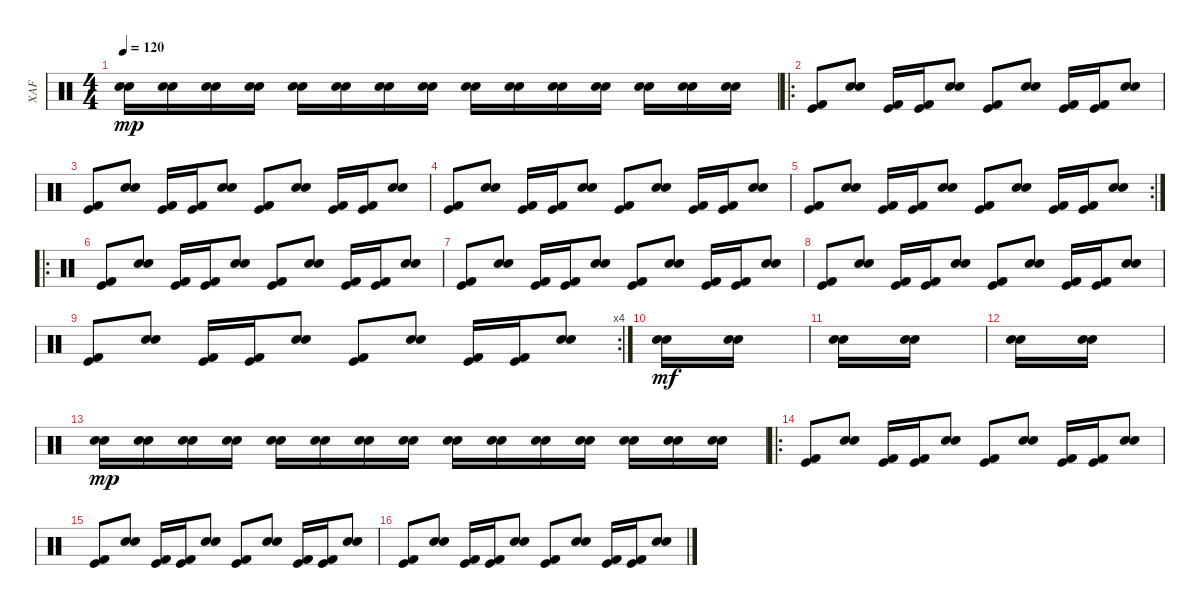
\track ("XAF" "XAF") {instrument percussion}
\staff {score}
\articulation defaults
\ts (4 4)
\tempo 120
\clef neutral
\ks c
("Electric Snare (hit)" "Snare (hit) 2").16{dy mp} ("Electric Snare (hit)" "Snare (hit) 2").16 ("Electric Snare (hit)" "Snare (hit) 2").16 ("Electric Snare (hit)" "Snare (hit) 2").16 ("Electric Snare (hit)" "Snare (hit) 2").16 ("Electric Snare (hit)" "Snare (hit) 2").16 ("Electric Snare (hit)" "Snare (hit) 2").16 ("Electric Snare (hit)" "Snare (hit) 2").16 ("Electric Snare (hit)" "Snare (hit) 2").16 ("Electric Snare (hit)" "Snare (hit) 2").16 ("Electric Snare (hit)" "Snare (hit) 2").16 ("Electric Snare (hit)" "Snare (hit) 2").16 ("Electric Snare (hit)" "Snare (hit) 2").16 ("Electric Snare (hit)" "Snare (hit) 2").16 ("Electric Snare (hit)" "Snare (hit) 2").16 |
\ro
("Kick (hit) 2" "Kick (hit)").8 ("Electric Snare (hit)" "Snare (hit) 2").8 ("Kick (hit) 2" "Kick (hit)").16 ("Kick (hit) 2" "Kick (hit)").16 ("Electric Snare (hit)" "Snare (hit) 2").8 ("Kick (hit) 2" "Kick (hit)").8 ("Electric Snare (hit)" "Snare (hit) 2").8 ("Kick (hit) 2" "Kick (hit)").16 ("Kick (hit) 2" "Kick (hit)").16 ("Electric Snare (hit)" "Snare (hit) 2").8 |
("Kick (hit) 2" "Kick (hit)").8 ("Electric Snare (hit)" "Snare (hit) 2").8 ("Kick (hit) 2" "Kick (hit)").16 ("Kick (hit) 2" "Kick (hit)").16 ("Electric Snare (hit)" "Snare (hit) 2").8 ("Kick (hit) 2" "Kick (hit)").8 ("Electric Snare (hit)" "Snare (hit) 2").8 ("Kick (hit) 2" "Kick (hit)").16 ("Kick (hit) 2" "Kick (hit)").16 ("Electric Snare (hit)" "Snare (hit) 2").8 |
("Kick (hit) 2" "Kick (hit)").8 ("Electric Snare (hit)" "Snare (hit) 2").8 ("Kick (hit) 2" "Kick (hit)").16 ("Kick (hit) 2" "Kick (hit)").16 ("Electric Snare (hit)" "Snare (hit) 2").8 ("Kick (hit) 2" "Kick (hit)").8 ("Electric Snare (hit)" "Snare (hit) 2").8 ("Kick (hit) 2" "Kick (hit)").16 ("Kick (hit) 2" "Kick (hit)").16 ("Electric Snare (hit)" "Snare (hit) 2").8 |
\rc 2
("Kick (hit) 2" "Kick (hit)").8 ("Electric Snare (hit)" "Snare (hit) 2").8 ("Kick (hit) 2" "Kick (hit)").16 ("Kick (hit) 2" "Kick (hit)").16 ("Electric Snare (hit)" "Snare (hit) 2").8 ("Kick (hit) 2" "Kick (hit)").8 ("Electric Snare (hit)" "Snare (hit) 2").8 ("Kick (hit) 2" "Kick (hit)").16 ("Kick (hit) 2" "Kick (hit)").16 ("Electric Snare (hit)" "Snare (hit) 2").8 |
\ro
("Kick (hit) 2" "Kick (hit)").8 ("Electric Snare (hit)" "Snare (hit) 2").8 ("Kick (hit) 2" "Kick (hit)").16 ("Kick (hit) 2" "Kick (hit)").16 ("Electric Snare (hit)" "Snare (hit) 2").8 ("Kick (hit) 2" "Kick (hit)").8 ("Electric Snare (hit)" "Snare (hit) 2").8 ("Kick (hit) 2" "Kick (hit)").16 ("Kick (hit) 2" "Kick (hit)").16 ("Electric Snare (hit)" "Snare (hit) 2").8 |
("Kick (hit) 2" "Kick (hit)").8 ("Electric Snare (hit)" "Snare (hit) 2").8 ("Kick (hit) 2" "Kick (hit)").16 ("Kick (hit) 2" "Kick (hit)").16 ("Electric Snare (hit)" "Snare (hit) 2").8 ("Kick (hit) 2" "Kick (hit)").8 ("Electric Snare (hit)" "Snare (hit) 2").8 ("Kick (hit) 2" "Kick (hit)").16 ("Kick (hit) 2" "Kick (hit)").16 ("Electric Snare (hit)" "Snare (hit) 2").8 |
("Kick (hit) 2" "Kick (hit)").8 ("Electric Snare (hit)" "Snare (hit) 2").8 ("Kick (hit) 2" "Kick (hit)").16 ("Kick (hit) 2" "Kick (hit)").16 ("Electric Snare (hit)" "Snare (hit) 2").8 ("Kick (hit) 2" "Kick (hit)").8 ("Electric Snare (hit)" "Snare (hit) 2").8 ("Kick (hit) 2" "Kick (hit)").16 ("Kick (hit) 2" "Kick (hit)").16 ("Electric Snare (hit)" "Snare (hit) 2").8 |
\rc 4
("Kick (hit) 2" "Kick (hit)").8 ("Electric Snare (hit)" "Snare (hit) 2").8 ("Kick (hit) 2" "Kick (hit)").16 ("Kick (hit) 2" "Kick (hit)").16 ("Electric Snare (hit)" "Snare (hit) 2").8 ("Kick (hit) 2" "Kick (hit)").8 ("Electric Snare (hit)" "Snare (hit) 2").8 ("Kick (hit) 2" "Kick (hit)").16 ("Kick (hit) 2" "Kick (hit)").16 ("Electric Snare (hit)" "Snare (hit) 2").8 |
("Electric Snare (hit)" "Snare (hit) 2").16{dy mf} ("Electric Snare (hit)" "Snare (hit) 2").16 |
("Electric Snare (hit)" "Snare (hit) 2").16 ("Electric Snare (hit)" "Snare (hit) 2").16 |
("Electric Snare (hit)" "Snare (hit) 2").16 ("Electric Snare (hit)" "Snare (hit) 2").16 |
("Electric Snare (hit)" "Snare (hit) 2").16{dy mp} ("Electric Snare (hit)" "Snare (hit) 2").16 ("Electric Snare (hit)" "Snare (hit) 2").16 ("Electric Snare (hit)" "Snare (hit) 2").16 ("Electric Snare (hit)" "Snare (hit) 2").16 ("Electric Snare (hit)" "Snare (hit) 2").16 ("Electric Snare (hit)" "Snare (hit) 2").16 ("Electric Snare (hit)" "Snare (hit) 2").16 ("Electric Snare (hit)" "Snare (hit) 2").16 ("Electric Snare (hit)" "Snare (hit) 2").16 ("Electric Snare (hit)" "Snare (hit) 2").16 ("Electric Snare (hit)" "Snare (hit) 2").16 ("Electric Snare (hit)" "Snare (hit) 2").16 ("Electric Snare (hit)" "Snare (hit) 2").16 ("Electric Snare (hit)" "Snare (hit) 2").16 |
\ro
("Kick (hit) 2" "Kick (hit)").8 ("Electric Snare (hit)" "Snare (hit) 2").8 ("Kick (hit) 2" "Kick (hit)").16 ("Kick (hit) 2" "Kick (hit)").16 ("Electric Snare (hit)" "Snare (hit) 2").8 ("Kick (hit) 2" "Kick (hit)").8 ("Electric Snare (hit)" "Snare (hit) 2").8 ("Kick (hit) 2" "Kick (hit)").16 ("Kick (hit) 2" "Kick (hit)").16 ("Electric Snare (hit)" "Snare (hit) 2").8 |
("Kick (hit) 2" "Kick (hit)").8 ("Electric Snare (hit)" "Snare (hit) 2").8 ("Kick (hit) 2" "Kick (hit)").16 ("Kick (hit) 2" "Kick (hit)").16 ("Electric Snare (hit)" "Snare (hit) 2").8 ("Kick (hit) 2" "Kick (hit)").8 ("Electric Snare (hit)" "Snare (hit) 2").8 ("Kick (hit) 2" "Kick (hit)").16 ("Kick (hit) 2" "Kick (hit)").16 ("Electric Snare (hit)" "Snare (hit) 2").8 |
("Kick (hit) 2" "Kick (hit)").8 ("Electric Snare (hit)" "Snare (hit) 2").8 ("Kick (hit) 2" "Kick (hit)").16 ("Kick (hit) 2" "Kick (hit)").16 ("Electric Snare (hit)" "Snare (hit) 2").8 ("Kick (hit) 2" "Kick (hit)").8 ("Electric Snare (hit)" "Snare (hit) 2").8 ("Kick (hit) 2" "Kick (hit)").16 ("Kick (hit) 2" "Kick (hit)").16 ("Electric Snare (hit)" "Snare (hit) 2").8
